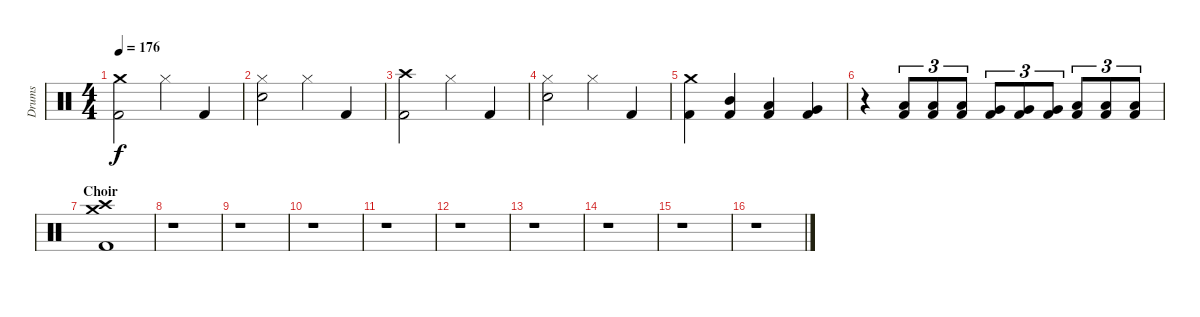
\track ("Drums" "Drums") {instrument percussion}
\staff {score}
\articulation defaults
\ts (4 4)
\tempo 176
\clef neutral
\ks c
("Kick (hit) 2" "Crash medium (hit)").2{dy f} "Hi-Hat (closed)".4 "Kick (hit) 2".4 |
("Electric Snare (hit)" "Hi-Hat (closed)").2 "Hi-Hat (closed)".4 "Kick (hit) 2".4 |
("Kick (hit) 2" "Crash high (hit)").2 "Hi-Hat (closed)".4 "Kick (hit) 2".4 |
("Electric Snare (hit)" "Hi-Hat (closed)").2 "Hi-Hat (closed)".4 "Kick (hit) 2".4 |
("Kick (hit) 2" "Crash medium (hit)").4 ("Kick (hit) 2" "Mid Tom (hit)").4 ("Kick (hit) 2" "Low Tom (hit)").4 ("Kick (hit) 2" "Very Low Tom (hit)").4 |
r.4 ("Kick (hit) 2" "Low Tom (hit)").8{tu (3 2)} ("Kick (hit) 2" "Low Tom (hit)").8{tu (3 2)} ("Kick (hit) 2" "Low Tom (hit)").8{tu (3 2)} ("Kick (hit) 2" "Very Low Tom (hit)").8{tu (3 2)} ("Kick (hit) 2" "Very Low Tom (hit)").8{tu (3 2)} ("Kick (hit) 2" "Very Low Tom (hit)").8{tu (3 2)} ("Kick (hit) 2" "Low Floor Tom (hit)").8{tu (3 2)} ("Kick (hit) 2" "Low Floor Tom (hit)").8{tu (3 2)} ("Kick (hit) 2" "Low Floor Tom (hit)").8{tu (3 2)} |
\section ("" "Choir")
("Kick (hit) 2" "Crash medium (hit)" "Crash high (hit)").1 |
r.1 |
r.1 |
r.1 |
r.1 |
r.1 |
r.1 |
r.1 |
\section ("" "")
r.1 |
r.1
